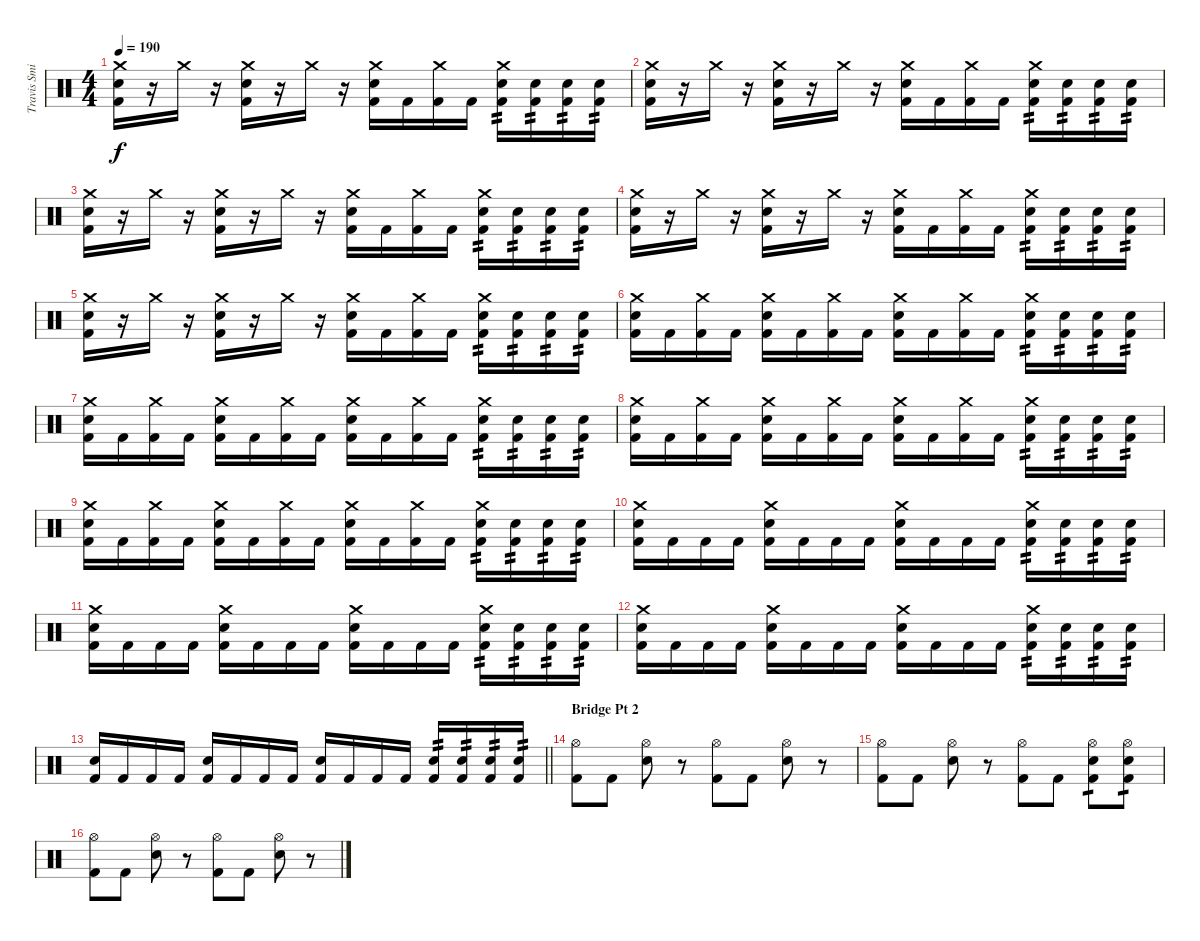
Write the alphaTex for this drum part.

\track ("Travis Smith" "Travis Smi") {instrument percussion}
\staff {score}
\articulation defaults
\ts (4 4)
\tempo 190
\clef neutral
\ks c
("Crash medium (hit)" "Electric Snare (hit)" "Kick (hit) 2").16{dy f} r.16 "Crash medium (hit)".16 r.16 ("Crash medium (hit)" "Electric Snare (hit)" "Kick (hit) 2").16 r.16 "Crash medium (hit)".16 r.16 ("Crash medium (hit)" "Electric Snare (hit)" "Kick (hit) 2").16 "Kick (hit) 2".16 ("Crash medium (hit)" "Kick (hit) 2").16 "Kick (hit) 2".16 ("Crash medium (hit)" "Electric Snare (hit)" "Kick (hit) 2").16{tp 2} ("Electric Snare (hit)" "Kick (hit) 2").16{tp 2} ("Electric Snare (hit)" "Kick (hit) 2").16{tp 2} ("Electric Snare (hit)" "Kick (hit) 2").16{tp 2} |
("Crash medium (hit)" "Electric Snare (hit)" "Kick (hit) 2").16 r.16 "Crash medium (hit)".16 r.16 ("Crash medium (hit)" "Electric Snare (hit)" "Kick (hit) 2").16 r.16 "Crash medium (hit)".16 r.16 ("Crash medium (hit)" "Electric Snare (hit)" "Kick (hit) 2").16 "Kick (hit) 2".16 ("Crash medium (hit)" "Kick (hit) 2").16 "Kick (hit) 2".16 ("Crash medium (hit)" "Electric Snare (hit)" "Kick (hit) 2").16{tp 2} ("Electric Snare (hit)" "Kick (hit) 2").16{tp 2} ("Electric Snare (hit)" "Kick (hit) 2").16{tp 2} ("Electric Snare (hit)" "Kick (hit) 2").16{tp 2} |
("Crash medium (hit)" "Electric Snare (hit)" "Kick (hit) 2").16 r.16 "Crash medium (hit)".16 r.16 ("Crash medium (hit)" "Electric Snare (hit)" "Kick (hit) 2").16 r.16 "Crash medium (hit)".16 r.16 ("Crash medium (hit)" "Electric Snare (hit)" "Kick (hit) 2").16 "Kick (hit) 2".16 ("Crash medium (hit)" "Kick (hit) 2").16 "Kick (hit) 2".16 ("Crash medium (hit)" "Electric Snare (hit)" "Kick (hit) 2").16{tp 2} ("Electric Snare (hit)" "Kick (hit) 2").16{tp 2} ("Electric Snare (hit)" "Kick (hit) 2").16{tp 2} ("Electric Snare (hit)" "Kick (hit) 2").16{tp 2} |
("Crash medium (hit)" "Electric Snare (hit)" "Kick (hit) 2").16 r.16 "Crash medium (hit)".16 r.16 ("Crash medium (hit)" "Electric Snare (hit)" "Kick (hit) 2").16 r.16 "Crash medium (hit)".16 r.16 ("Crash medium (hit)" "Electric Snare (hit)" "Kick (hit) 2").16 "Kick (hit) 2".16 ("Crash medium (hit)" "Kick (hit) 2").16 "Kick (hit) 2".16 ("Crash medium (hit)" "Electric Snare (hit)" "Kick (hit) 2").16{tp 2} ("Electric Snare (hit)" "Kick (hit) 2").16{tp 2} ("Electric Snare (hit)" "Kick (hit) 2").16{tp 2} ("Electric Snare (hit)" "Kick (hit) 2").16{tp 2} |
("Crash medium (hit)" "Electric Snare (hit)" "Kick (hit) 2").16 r.16 "Crash medium (hit)".16 r.16 ("Crash medium (hit)" "Electric Snare (hit)" "Kick (hit) 2").16 r.16 "Crash medium (hit)".16 r.16 ("Crash medium (hit)" "Electric Snare (hit)" "Kick (hit) 2").16 "Kick (hit) 2".16 ("Crash medium (hit)" "Kick (hit) 2").16 "Kick (hit) 2".16 ("Crash medium (hit)" "Electric Snare (hit)" "Kick (hit) 2").16{tp 2} ("Electric Snare (hit)" "Kick (hit) 2").16{tp 2} ("Electric Snare (hit)" "Kick (hit) 2").16{tp 2} ("Electric Snare (hit)" "Kick (hit) 2").16{tp 2} |
("Crash medium (hit)" "Electric Snare (hit)" "Kick (hit) 2").16 "Kick (hit) 2".16 ("Crash medium (hit)" "Kick (hit) 2").16 "Kick (hit) 2".16 ("Crash medium (hit)" "Electric Snare (hit)" "Kick (hit) 2").16 "Kick (hit) 2".16 ("Crash medium (hit)" "Kick (hit) 2").16 "Kick (hit) 2".16 ("Crash medium (hit)" "Electric Snare (hit)" "Kick (hit) 2").16 "Kick (hit) 2".16 ("Crash medium (hit)" "Kick (hit) 2").16 "Kick (hit) 2".16 ("Crash medium (hit)" "Electric Snare (hit)" "Kick (hit) 2").16{tp 2} ("Electric Snare (hit)" "Kick (hit) 2").16{tp 2} ("Electric Snare (hit)" "Kick (hit) 2").16{tp 2} ("Electric Snare (hit)" "Kick (hit) 2").16{tp 2} |
("Crash medium (hit)" "Electric Snare (hit)" "Kick (hit) 2").16 "Kick (hit) 2".16 ("Crash medium (hit)" "Kick (hit) 2").16 "Kick (hit) 2".16 ("Crash medium (hit)" "Electric Snare (hit)" "Kick (hit) 2").16 "Kick (hit) 2".16 ("Crash medium (hit)" "Kick (hit) 2").16 "Kick (hit) 2".16 ("Crash medium (hit)" "Electric Snare (hit)" "Kick (hit) 2").16 "Kick (hit) 2".16 ("Crash medium (hit)" "Kick (hit) 2").16 "Kick (hit) 2".16 ("Crash medium (hit)" "Electric Snare (hit)" "Kick (hit) 2").16{tp 2} ("Electric Snare (hit)" "Kick (hit) 2").16{tp 2} ("Electric Snare (hit)" "Kick (hit) 2").16{tp 2} ("Electric Snare (hit)" "Kick (hit) 2").16{tp 2} |
("Crash medium (hit)" "Electric Snare (hit)" "Kick (hit) 2").16 "Kick (hit) 2".16 ("Crash medium (hit)" "Kick (hit) 2").16 "Kick (hit) 2".16 ("Crash medium (hit)" "Electric Snare (hit)" "Kick (hit) 2").16 "Kick (hit) 2".16 ("Crash medium (hit)" "Kick (hit) 2").16 "Kick (hit) 2".16 ("Crash medium (hit)" "Electric Snare (hit)" "Kick (hit) 2").16 "Kick (hit) 2".16 ("Crash medium (hit)" "Kick (hit) 2").16 "Kick (hit) 2".16 ("Crash medium (hit)" "Electric Snare (hit)" "Kick (hit) 2").16{tp 2} ("Electric Snare (hit)" "Kick (hit) 2").16{tp 2} ("Electric Snare (hit)" "Kick (hit) 2").16{tp 2} ("Electric Snare (hit)" "Kick (hit) 2").16{tp 2} |
("Crash medium (hit)" "Electric Snare (hit)" "Kick (hit) 2").16 "Kick (hit) 2".16 ("Crash medium (hit)" "Kick (hit) 2").16 "Kick (hit) 2".16 ("Crash medium (hit)" "Electric Snare (hit)" "Kick (hit) 2").16 "Kick (hit) 2".16 ("Crash medium (hit)" "Kick (hit) 2").16 "Kick (hit) 2".16 ("Crash medium (hit)" "Electric Snare (hit)" "Kick (hit) 2").16 "Kick (hit) 2".16 ("Crash medium (hit)" "Kick (hit) 2").16 "Kick (hit) 2".16 ("Crash medium (hit)" "Electric Snare (hit)" "Kick (hit) 2").16{tp 2} ("Electric Snare (hit)" "Kick (hit) 2").16{tp 2} ("Electric Snare (hit)" "Kick (hit) 2").16{tp 2} ("Electric Snare (hit)" "Kick (hit) 2").16{tp 2} |
("Crash medium (hit)" "Electric Snare (hit)" "Kick (hit) 2").16 "Kick (hit) 2".16 "Kick (hit) 2".16 "Kick (hit) 2".16 ("Crash medium (hit)" "Electric Snare (hit)" "Kick (hit) 2").16 "Kick (hit) 2".16 "Kick (hit) 2".16 "Kick (hit) 2".16 ("Crash medium (hit)" "Electric Snare (hit)" "Kick (hit) 2").16 "Kick (hit) 2".16 "Kick (hit) 2".16 "Kick (hit) 2".16 ("Crash medium (hit)" "Electric Snare (hit)" "Kick (hit) 2").16{tp 2} ("Electric Snare (hit)" "Kick (hit) 2").16{tp 2} ("Electric Snare (hit)" "Kick (hit) 2").16{tp 2} ("Electric Snare (hit)" "Kick (hit) 2").16{tp 2} |
("Crash medium (hit)" "Electric Snare (hit)" "Kick (hit) 2").16 "Kick (hit) 2".16 "Kick (hit) 2".16 "Kick (hit) 2".16 ("Crash medium (hit)" "Electric Snare (hit)" "Kick (hit) 2").16 "Kick (hit) 2".16 "Kick (hit) 2".16 "Kick (hit) 2".16 ("Crash medium (hit)" "Electric Snare (hit)" "Kick (hit) 2").16 "Kick (hit) 2".16 "Kick (hit) 2".16 "Kick (hit) 2".16 ("Crash medium (hit)" "Electric Snare (hit)" "Kick (hit) 2").16{tp 2} ("Electric Snare (hit)" "Kick (hit) 2").16{tp 2} ("Electric Snare (hit)" "Kick (hit) 2").16{tp 2} ("Electric Snare (hit)" "Kick (hit) 2").16{tp 2} |
("Crash medium (hit)" "Electric Snare (hit)" "Kick (hit) 2").16 "Kick (hit) 2".16 "Kick (hit) 2".16 "Kick (hit) 2".16 ("Crash medium (hit)" "Electric Snare (hit)" "Kick (hit) 2").16 "Kick (hit) 2".16 "Kick (hit) 2".16 "Kick (hit) 2".16 ("Crash medium (hit)" "Electric Snare (hit)" "Kick (hit) 2").16 "Kick (hit) 2".16 "Kick (hit) 2".16 "Kick (hit) 2".16 ("Crash medium (hit)" "Electric Snare (hit)" "Kick (hit) 2").16{tp 2} ("Electric Snare (hit)" "Kick (hit) 2").16{tp 2} ("Electric Snare (hit)" "Kick (hit) 2").16{tp 2} ("Electric Snare (hit)" "Kick (hit) 2").16{tp 2} |
\barLineRight lightlight
("Electric Snare (hit)" "Kick (hit) 2").16 "Kick (hit) 2".16 "Kick (hit) 2".16 "Kick (hit) 2".16 ("Electric Snare (hit)" "Kick (hit) 2").16 "Kick (hit) 2".16 "Kick (hit) 2".16 "Kick (hit) 2".16 ("Electric Snare (hit)" "Kick (hit) 2").16 "Kick (hit) 2".16 "Kick (hit) 2".16 "Kick (hit) 2".16 ("Electric Snare (hit)" "Kick (hit) 2").16{tp 2} ("Electric Snare (hit)" "Kick (hit) 2").16{tp 2} ("Electric Snare (hit)" "Kick (hit) 2").16{tp 2} ("Electric Snare (hit)" "Kick (hit) 2").16{tp 2} |
\section ("" "Bridge Pt 2")
("Hi-Hat (open)" "Kick (hit) 2").8 "Kick (hit) 2".8 ("Hi-Hat (open)" "Electric Snare (hit)").8 r.8 ("Hi-Hat (open)" "Kick (hit) 2").8 "Kick (hit) 2".8 ("Hi-Hat (open)" "Electric Snare (hit)").8 r.8 |
("Hi-Hat (open)" "Kick (hit) 2").8 "Kick (hit) 2".8 ("Hi-Hat (open)" "Electric Snare (hit)").8 r.8 ("Hi-Hat (open)" "Kick (hit) 2").8 "Kick (hit) 2".8 ("Hi-Hat (open)" "Electric Snare (hit)" "Kick (hit) 2").8{tp 1} ("Hi-Hat (open)" "Electric Snare (hit)" "Kick (hit) 2").8{tp 1} |
("Hi-Hat (open)" "Kick (hit) 2").8 "Kick (hit) 2".8 ("Hi-Hat (open)" "Electric Snare (hit)").8 r.8 ("Hi-Hat (open)" "Kick (hit) 2").8 "Kick (hit) 2".8 ("Hi-Hat (open)" "Electric Snare (hit)").8 r.8
